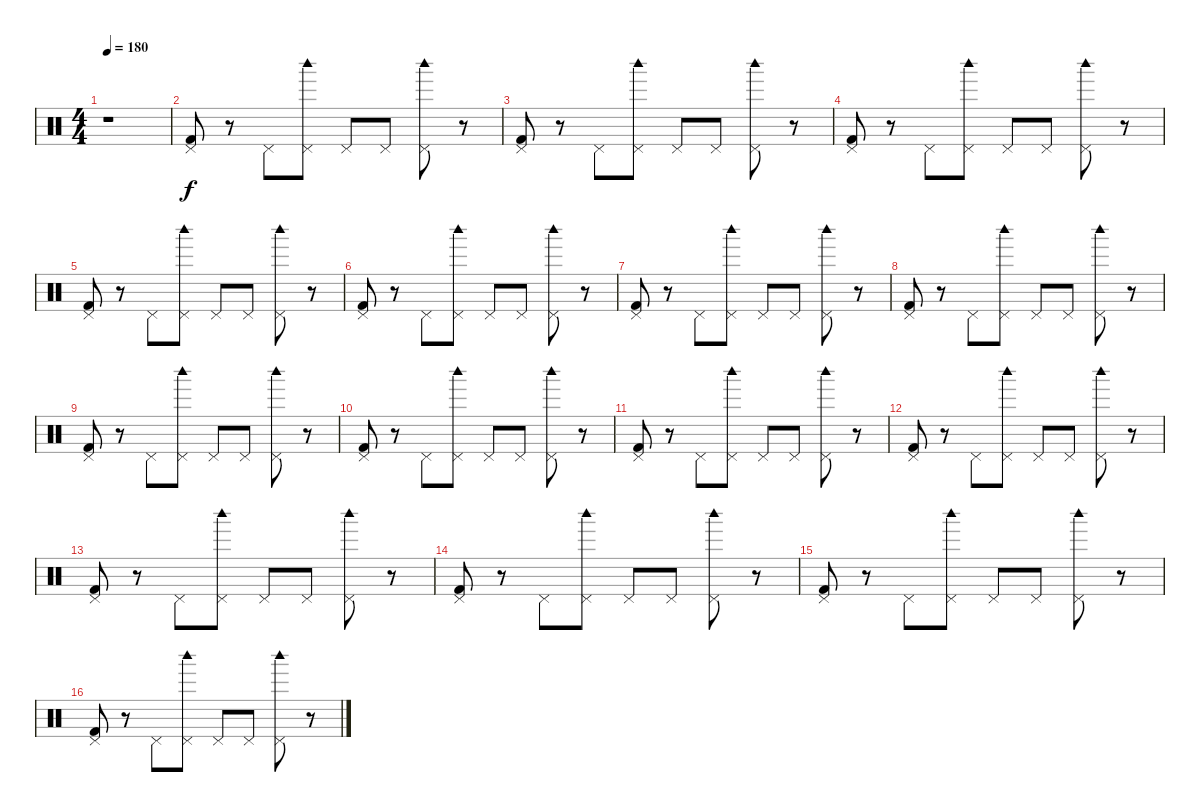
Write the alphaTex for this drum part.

\track "" {instrument percussion}
\staff {score}
\articulation defaults
\ts (4 4)
\tempo 180
\clef neutral
\ks c
r.1{dy f} |
("Pedal Hi-Hat (hit)" "Kick (hit) 2").8 r.8 "Pedal Hi-Hat (hit)".8 ("Pedal Hi-Hat (hit)" "Woodblock high (hit)").8 "Pedal Hi-Hat (hit)".8 "Pedal Hi-Hat (hit)".8 ("Pedal Hi-Hat (hit)" "Woodblock high (hit)").8 r.8 |
("Pedal Hi-Hat (hit)" "Kick (hit) 2").8 r.8 "Pedal Hi-Hat (hit)".8 ("Pedal Hi-Hat (hit)" "Woodblock high (hit)").8 "Pedal Hi-Hat (hit)".8 "Pedal Hi-Hat (hit)".8 ("Pedal Hi-Hat (hit)" "Woodblock high (hit)").8 r.8 |
("Pedal Hi-Hat (hit)" "Kick (hit) 2").8 r.8 "Pedal Hi-Hat (hit)".8 ("Pedal Hi-Hat (hit)" "Woodblock high (hit)").8 "Pedal Hi-Hat (hit)".8 "Pedal Hi-Hat (hit)".8 ("Pedal Hi-Hat (hit)" "Woodblock high (hit)").8 r.8 |
("Pedal Hi-Hat (hit)" "Kick (hit) 2").8 r.8 "Pedal Hi-Hat (hit)".8 ("Pedal Hi-Hat (hit)" "Woodblock high (hit)").8 "Pedal Hi-Hat (hit)".8 "Pedal Hi-Hat (hit)".8 ("Pedal Hi-Hat (hit)" "Woodblock high (hit)").8 r.8 |
("Pedal Hi-Hat (hit)" "Kick (hit) 2").8 r.8 "Pedal Hi-Hat (hit)".8 ("Pedal Hi-Hat (hit)" "Woodblock high (hit)").8 "Pedal Hi-Hat (hit)".8 "Pedal Hi-Hat (hit)".8 ("Pedal Hi-Hat (hit)" "Woodblock high (hit)").8 r.8 |
("Pedal Hi-Hat (hit)" "Kick (hit) 2").8 r.8 "Pedal Hi-Hat (hit)".8 ("Pedal Hi-Hat (hit)" "Woodblock high (hit)").8 "Pedal Hi-Hat (hit)".8 "Pedal Hi-Hat (hit)".8 ("Pedal Hi-Hat (hit)" "Woodblock high (hit)").8 r.8 |
("Pedal Hi-Hat (hit)" "Kick (hit) 2").8 r.8 "Pedal Hi-Hat (hit)".8 ("Pedal Hi-Hat (hit)" "Woodblock high (hit)").8 "Pedal Hi-Hat (hit)".8 "Pedal Hi-Hat (hit)".8 ("Pedal Hi-Hat (hit)" "Woodblock high (hit)").8 r.8 |
("Pedal Hi-Hat (hit)" "Kick (hit) 2").8 r.8 "Pedal Hi-Hat (hit)".8 ("Pedal Hi-Hat (hit)" "Woodblock high (hit)").8 "Pedal Hi-Hat (hit)".8 "Pedal Hi-Hat (hit)".8 ("Pedal Hi-Hat (hit)" "Woodblock high (hit)").8 r.8 |
("Pedal Hi-Hat (hit)" "Kick (hit) 2").8 r.8 "Pedal Hi-Hat (hit)".8 ("Pedal Hi-Hat (hit)" "Woodblock high (hit)").8 "Pedal Hi-Hat (hit)".8 "Pedal Hi-Hat (hit)".8 ("Pedal Hi-Hat (hit)" "Woodblock high (hit)").8 r.8 |
("Pedal Hi-Hat (hit)" "Kick (hit) 2").8 r.8 "Pedal Hi-Hat (hit)".8 ("Pedal Hi-Hat (hit)" "Woodblock high (hit)").8 "Pedal Hi-Hat (hit)".8 "Pedal Hi-Hat (hit)".8 ("Pedal Hi-Hat (hit)" "Woodblock high (hit)").8 r.8 |
("Pedal Hi-Hat (hit)" "Kick (hit) 2").8 r.8 "Pedal Hi-Hat (hit)".8 ("Pedal Hi-Hat (hit)" "Woodblock high (hit)").8 "Pedal Hi-Hat (hit)".8 "Pedal Hi-Hat (hit)".8 ("Pedal Hi-Hat (hit)" "Woodblock high (hit)").8 r.8 |
("Pedal Hi-Hat (hit)" "Kick (hit) 2").8 r.8 "Pedal Hi-Hat (hit)".8 ("Pedal Hi-Hat (hit)" "Woodblock high (hit)").8 "Pedal Hi-Hat (hit)".8 "Pedal Hi-Hat (hit)".8 ("Pedal Hi-Hat (hit)" "Woodblock high (hit)").8 r.8 |
("Pedal Hi-Hat (hit)" "Kick (hit) 2").8 r.8 "Pedal Hi-Hat (hit)".8 ("Pedal Hi-Hat (hit)" "Woodblock high (hit)").8 "Pedal Hi-Hat (hit)".8 "Pedal Hi-Hat (hit)".8 ("Pedal Hi-Hat (hit)" "Woodblock high (hit)").8 r.8 |
("Pedal Hi-Hat (hit)" "Kick (hit) 2").8 r.8 "Pedal Hi-Hat (hit)".8 ("Pedal Hi-Hat (hit)" "Woodblock high (hit)").8 "Pedal Hi-Hat (hit)".8 "Pedal Hi-Hat (hit)".8 ("Pedal Hi-Hat (hit)" "Woodblock high (hit)").8 r.8 |
("Pedal Hi-Hat (hit)" "Kick (hit) 2").8 r.8 "Pedal Hi-Hat (hit)".8 ("Pedal Hi-Hat (hit)" "Woodblock high (hit)").8 "Pedal Hi-Hat (hit)".8 "Pedal Hi-Hat (hit)".8 ("Pedal Hi-Hat (hit)" "Woodblock high (hit)").8 r.8
